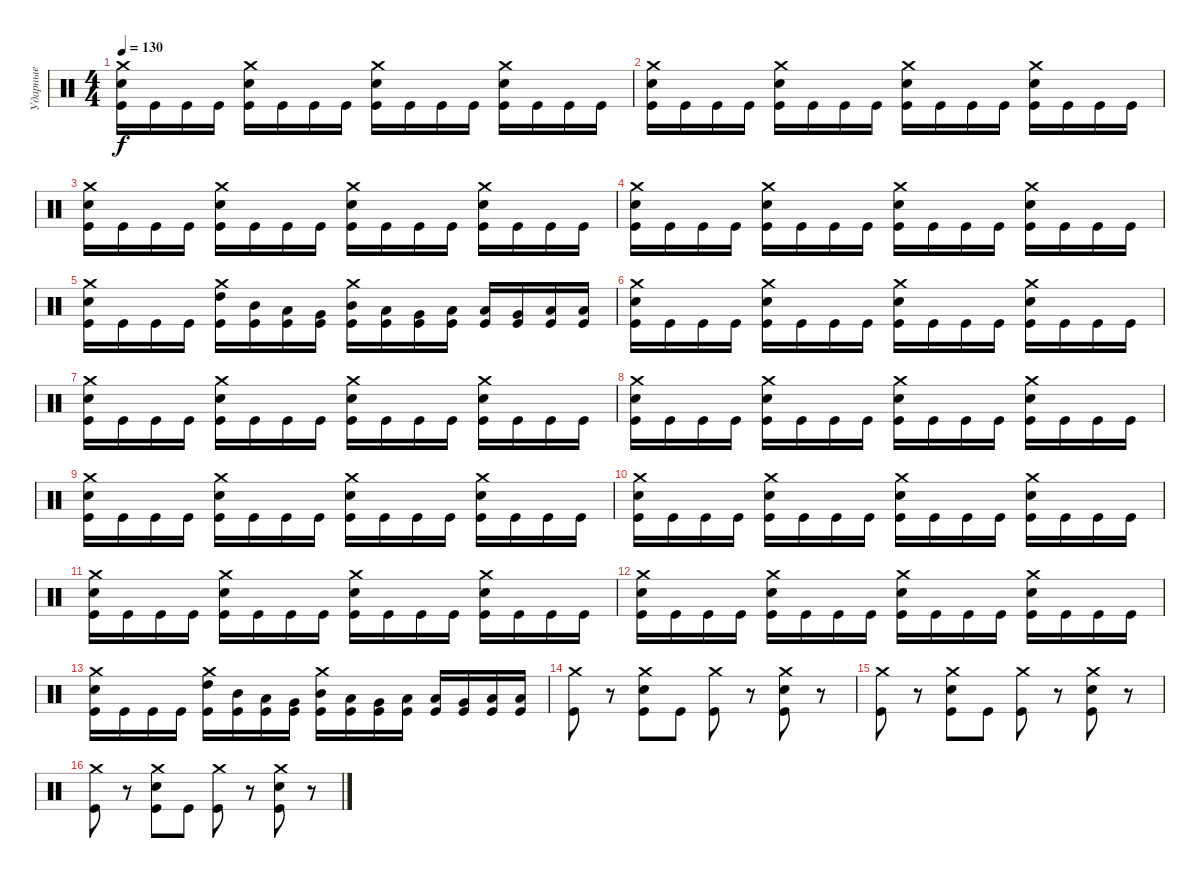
\track ("Ударные" "Ударные") {instrument percussion}
\staff {score}
\articulation defaults
\ts (4 4)
\tempo 130
\clef neutral
\ks c
("Crash medium (hit)" "Electric Snare (hit)" "Kick (hit)").16{dy f} "Kick (hit)".16 "Kick (hit)".16 "Kick (hit)".16 ("Crash medium (hit)" "Electric Snare (hit)" "Kick (hit)").16 "Kick (hit)".16 "Kick (hit)".16 "Kick (hit)".16 ("Crash medium (hit)" "Electric Snare (hit)" "Kick (hit)").16 "Kick (hit)".16 "Kick (hit)".16 "Kick (hit)".16 ("Crash medium (hit)" "Electric Snare (hit)" "Kick (hit)").16 "Kick (hit)".16 "Kick (hit)".16 "Kick (hit)".16 |
("Crash medium (hit)" "Electric Snare (hit)" "Kick (hit)").16 "Kick (hit)".16 "Kick (hit)".16 "Kick (hit)".16 ("Crash medium (hit)" "Electric Snare (hit)" "Kick (hit)").16 "Kick (hit)".16 "Kick (hit)".16 "Kick (hit)".16 ("Crash medium (hit)" "Electric Snare (hit)" "Kick (hit)").16 "Kick (hit)".16 "Kick (hit)".16 "Kick (hit)".16 ("Crash medium (hit)" "Electric Snare (hit)" "Kick (hit)").16 "Kick (hit)".16 "Kick (hit)".16 "Kick (hit)".16 |
("Crash medium (hit)" "Electric Snare (hit)" "Kick (hit)").16 "Kick (hit)".16 "Kick (hit)".16 "Kick (hit)".16 ("Crash medium (hit)" "Electric Snare (hit)" "Kick (hit)").16 "Kick (hit)".16 "Kick (hit)".16 "Kick (hit)".16 ("Crash medium (hit)" "Electric Snare (hit)" "Kick (hit)").16 "Kick (hit)".16 "Kick (hit)".16 "Kick (hit)".16 ("Crash medium (hit)" "Electric Snare (hit)" "Kick (hit)").16 "Kick (hit)".16 "Kick (hit)".16 "Kick (hit)".16 |
("Crash medium (hit)" "Electric Snare (hit)" "Kick (hit)").16 "Kick (hit)".16 "Kick (hit)".16 "Kick (hit)".16 ("Crash medium (hit)" "Electric Snare (hit)" "Kick (hit)").16 "Kick (hit)".16 "Kick (hit)".16 "Kick (hit)".16 ("Crash medium (hit)" "Electric Snare (hit)" "Kick (hit)").16 "Kick (hit)".16 "Kick (hit)".16 "Kick (hit)".16 ("Crash medium (hit)" "Electric Snare (hit)" "Kick (hit)").16 "Kick (hit)".16 "Kick (hit)".16 "Kick (hit)".16 |
("Crash medium (hit)" "Electric Snare (hit)" "Kick (hit)").16 "Kick (hit)".16 "Kick (hit)".16 "Kick (hit)".16 ("Crash medium (hit)" "High Tom (hit)" "Kick (hit)").16 ("Mid Tom (hit)" "Kick (hit)").16 ("Low Tom (hit)" "Kick (hit)").16 ("Very Low Tom (hit)" "Kick (hit)").16 ("Crash medium (hit)" "Mid Tom (hit)" "Kick (hit)").16 ("Low Tom (hit)" "Kick (hit)").16 ("Very Low Tom (hit)" "Kick (hit)").16 ("Low Floor Tom (hit)" "Kick (hit)").16 ("Low Tom (hit)" "Kick (hit)").16 ("Very Low Tom (hit)" "Kick (hit)").16 ("Low Floor Tom (hit)" "Kick (hit)").16 ("Low Floor Tom (hit)" "Kick (hit)").16 |
("Crash medium (hit)" "Electric Snare (hit)" "Kick (hit)").16 "Kick (hit)".16 "Kick (hit)".16 "Kick (hit)".16 ("Crash medium (hit)" "Electric Snare (hit)" "Kick (hit)").16 "Kick (hit)".16 "Kick (hit)".16 "Kick (hit)".16 ("Crash medium (hit)" "Electric Snare (hit)" "Kick (hit)").16 "Kick (hit)".16 "Kick (hit)".16 "Kick (hit)".16 ("Crash medium (hit)" "Electric Snare (hit)" "Kick (hit)").16 "Kick (hit)".16 "Kick (hit)".16 "Kick (hit)".16 |
("Crash medium (hit)" "Electric Snare (hit)" "Kick (hit)").16 "Kick (hit)".16 "Kick (hit)".16 "Kick (hit)".16 ("Crash medium (hit)" "Electric Snare (hit)" "Kick (hit)").16 "Kick (hit)".16 "Kick (hit)".16 "Kick (hit)".16 ("Crash medium (hit)" "Electric Snare (hit)" "Kick (hit)").16 "Kick (hit)".16 "Kick (hit)".16 "Kick (hit)".16 ("Crash medium (hit)" "Electric Snare (hit)" "Kick (hit)").16 "Kick (hit)".16 "Kick (hit)".16 "Kick (hit)".16 |
("Crash medium (hit)" "Electric Snare (hit)" "Kick (hit)").16 "Kick (hit)".16 "Kick (hit)".16 "Kick (hit)".16 ("Crash medium (hit)" "Electric Snare (hit)" "Kick (hit)").16 "Kick (hit)".16 "Kick (hit)".16 "Kick (hit)".16 ("Crash medium (hit)" "Electric Snare (hit)" "Kick (hit)").16 "Kick (hit)".16 "Kick (hit)".16 "Kick (hit)".16 ("Crash medium (hit)" "Electric Snare (hit)" "Kick (hit)").16 "Kick (hit)".16 "Kick (hit)".16 "Kick (hit)".16 |
("Crash medium (hit)" "Electric Snare (hit)" "Kick (hit)").16 "Kick (hit)".16 "Kick (hit)".16 "Kick (hit)".16 ("Crash medium (hit)" "Electric Snare (hit)" "Kick (hit)").16 "Kick (hit)".16 "Kick (hit)".16 "Kick (hit)".16 ("Crash medium (hit)" "Electric Snare (hit)" "Kick (hit)").16 "Kick (hit)".16 "Kick (hit)".16 "Kick (hit)".16 ("Crash medium (hit)" "Electric Snare (hit)" "Kick (hit)").16 "Kick (hit)".16 "Kick (hit)".16 "Kick (hit)".16 |
("Crash medium (hit)" "Electric Snare (hit)" "Kick (hit)").16 "Kick (hit)".16 "Kick (hit)".16 "Kick (hit)".16 ("Crash medium (hit)" "Electric Snare (hit)" "Kick (hit)").16 "Kick (hit)".16 "Kick (hit)".16 "Kick (hit)".16 ("Crash medium (hit)" "Electric Snare (hit)" "Kick (hit)").16 "Kick (hit)".16 "Kick (hit)".16 "Kick (hit)".16 ("Crash medium (hit)" "Electric Snare (hit)" "Kick (hit)").16 "Kick (hit)".16 "Kick (hit)".16 "Kick (hit)".16 |
("Crash medium (hit)" "Electric Snare (hit)" "Kick (hit)").16 "Kick (hit)".16 "Kick (hit)".16 "Kick (hit)".16 ("Crash medium (hit)" "Electric Snare (hit)" "Kick (hit)").16 "Kick (hit)".16 "Kick (hit)".16 "Kick (hit)".16 ("Crash medium (hit)" "Electric Snare (hit)" "Kick (hit)").16 "Kick (hit)".16 "Kick (hit)".16 "Kick (hit)".16 ("Crash medium (hit)" "Electric Snare (hit)" "Kick (hit)").16 "Kick (hit)".16 "Kick (hit)".16 "Kick (hit)".16 |
("Crash medium (hit)" "Electric Snare (hit)" "Kick (hit)").16 "Kick (hit)".16 "Kick (hit)".16 "Kick (hit)".16 ("Crash medium (hit)" "Electric Snare (hit)" "Kick (hit)").16 "Kick (hit)".16 "Kick (hit)".16 "Kick (hit)".16 ("Crash medium (hit)" "Electric Snare (hit)" "Kick (hit)").16 "Kick (hit)".16 "Kick (hit)".16 "Kick (hit)".16 ("Crash medium (hit)" "Electric Snare (hit)" "Kick (hit)").16 "Kick (hit)".16 "Kick (hit)".16 "Kick (hit)".16 |
("Crash medium (hit)" "Electric Snare (hit)" "Kick (hit)").16 "Kick (hit)".16 "Kick (hit)".16 "Kick (hit)".16 ("Crash medium (hit)" "High Tom (hit)" "Kick (hit)").16 ("Mid Tom (hit)" "Kick (hit)").16 ("Low Tom (hit)" "Kick (hit)").16 ("Very Low Tom (hit)" "Kick (hit)").16 ("Crash medium (hit)" "Mid Tom (hit)" "Kick (hit)").16 ("Low Tom (hit)" "Kick (hit)").16 ("Very Low Tom (hit)" "Kick (hit)").16 ("Low Floor Tom (hit)" "Kick (hit)").16 ("Low Tom (hit)" "Kick (hit)").16 ("Very Low Tom (hit)" "Kick (hit)").16 ("Low Floor Tom (hit)" "Kick (hit)").16 ("Low Floor Tom (hit)" "Kick (hit)").16 |
("Crash medium (hit)" "Kick (hit)").8 r.8 ("Crash medium (hit)" "Electric Snare (hit)" "Kick (hit)").8 "Kick (hit)".8 ("Crash medium (hit)" "Kick (hit)").8 r.8 ("Crash medium (hit)" "Electric Snare (hit)" "Kick (hit)").8 r.8 |
("Crash medium (hit)" "Kick (hit)").8 r.8 ("Crash medium (hit)" "Electric Snare (hit)" "Kick (hit)").8 "Kick (hit)".8 ("Crash medium (hit)" "Kick (hit)").8 r.8 ("Crash medium (hit)" "Electric Snare (hit)" "Kick (hit)").8 r.8 |
("Crash medium (hit)" "Kick (hit)").8 r.8 ("Crash medium (hit)" "Electric Snare (hit)" "Kick (hit)").8 "Kick (hit)".8 ("Crash medium (hit)" "Kick (hit)").8 r.8 ("Crash medium (hit)" "Electric Snare (hit)" "Kick (hit)").8 r.8
